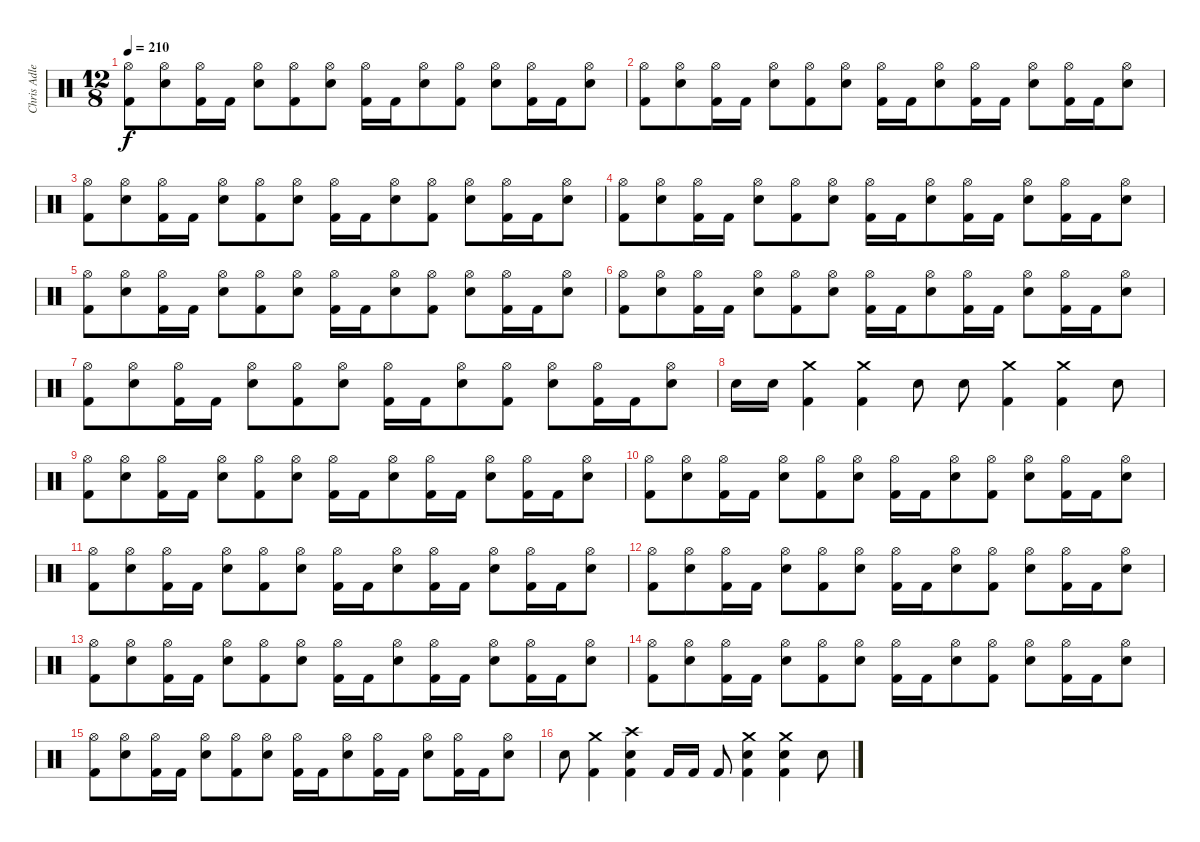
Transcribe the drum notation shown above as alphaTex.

\track ("Chris Adler" "Chris Adle") {instrument percussion}
\staff {score}
\articulation defaults
\ts (12 8)
\tempo 210
\clef neutral
\ks c
("Hi-Hat (open)" "Kick (hit) 2").8{dy f} ("Hi-Hat (open)" "Snare (hit) 2").8 ("Hi-Hat (open)" "Kick (hit) 2").16 "Kick (hit) 2".16 ("Hi-Hat (open)" "Snare (hit) 2").8 ("Hi-Hat (open)" "Kick (hit) 2").8 ("Hi-Hat (open)" "Snare (hit) 2").8 ("Hi-Hat (open)" "Kick (hit) 2").16 "Kick (hit) 2".16 ("Hi-Hat (open)" "Snare (hit) 2").8 ("Hi-Hat (open)" "Kick (hit) 2").8 ("Hi-Hat (open)" "Snare (hit) 2").8 ("Hi-Hat (open)" "Kick (hit) 2").16 "Kick (hit) 2".16 ("Hi-Hat (open)" "Snare (hit) 2").8 |
("Hi-Hat (open)" "Kick (hit) 2").8 ("Hi-Hat (open)" "Snare (hit) 2").8 ("Hi-Hat (open)" "Kick (hit) 2").16 "Kick (hit) 2".16 ("Hi-Hat (open)" "Snare (hit) 2").8 ("Hi-Hat (open)" "Kick (hit) 2").8 ("Hi-Hat (open)" "Snare (hit) 2").8 ("Hi-Hat (open)" "Kick (hit) 2").16 "Kick (hit) 2".16 ("Hi-Hat (open)" "Snare (hit) 2").8 ("Hi-Hat (open)" "Kick (hit) 2").16 "Kick (hit) 2".16 ("Hi-Hat (open)" "Snare (hit) 2").8 ("Hi-Hat (open)" "Kick (hit) 2").16 "Kick (hit) 2".16 ("Hi-Hat (open)" "Snare (hit) 2").8 |
("Hi-Hat (open)" "Kick (hit) 2").8 ("Hi-Hat (open)" "Snare (hit) 2").8 ("Hi-Hat (open)" "Kick (hit) 2").16 "Kick (hit) 2".16 ("Hi-Hat (open)" "Snare (hit) 2").8 ("Hi-Hat (open)" "Kick (hit) 2").8 ("Hi-Hat (open)" "Snare (hit) 2").8 ("Hi-Hat (open)" "Kick (hit) 2").16 "Kick (hit) 2".16 ("Hi-Hat (open)" "Snare (hit) 2").8 ("Hi-Hat (open)" "Kick (hit) 2").8 ("Hi-Hat (open)" "Snare (hit) 2").8 ("Hi-Hat (open)" "Kick (hit) 2").16 "Kick (hit) 2".16 ("Hi-Hat (open)" "Snare (hit) 2").8 |
("Hi-Hat (open)" "Kick (hit) 2").8 ("Hi-Hat (open)" "Snare (hit) 2").8 ("Hi-Hat (open)" "Kick (hit) 2").16 "Kick (hit) 2".16 ("Hi-Hat (open)" "Snare (hit) 2").8 ("Hi-Hat (open)" "Kick (hit) 2").8 ("Hi-Hat (open)" "Snare (hit) 2").8 ("Hi-Hat (open)" "Kick (hit) 2").16 "Kick (hit) 2".16 ("Hi-Hat (open)" "Snare (hit) 2").8 ("Hi-Hat (open)" "Kick (hit) 2").16 "Kick (hit) 2".16 ("Hi-Hat (open)" "Snare (hit) 2").8 ("Hi-Hat (open)" "Kick (hit) 2").16 "Kick (hit) 2".16 ("Hi-Hat (open)" "Snare (hit) 2").8 |
("Hi-Hat (open)" "Kick (hit) 2").8 ("Hi-Hat (open)" "Snare (hit) 2").8 ("Hi-Hat (open)" "Kick (hit) 2").16 "Kick (hit) 2".16 ("Hi-Hat (open)" "Snare (hit) 2").8 ("Hi-Hat (open)" "Kick (hit) 2").8 ("Hi-Hat (open)" "Snare (hit) 2").8 ("Hi-Hat (open)" "Kick (hit) 2").16 "Kick (hit) 2".16 ("Hi-Hat (open)" "Snare (hit) 2").8 ("Hi-Hat (open)" "Kick (hit) 2").8 ("Hi-Hat (open)" "Snare (hit) 2").8 ("Hi-Hat (open)" "Kick (hit) 2").16 "Kick (hit) 2".16 ("Hi-Hat (open)" "Snare (hit) 2").8 |
("Hi-Hat (open)" "Kick (hit) 2").8 ("Hi-Hat (open)" "Snare (hit) 2").8 ("Hi-Hat (open)" "Kick (hit) 2").16 "Kick (hit) 2".16 ("Hi-Hat (open)" "Snare (hit) 2").8 ("Hi-Hat (open)" "Kick (hit) 2").8 ("Hi-Hat (open)" "Snare (hit) 2").8 ("Hi-Hat (open)" "Kick (hit) 2").16 "Kick (hit) 2".16 ("Hi-Hat (open)" "Snare (hit) 2").8 ("Hi-Hat (open)" "Kick (hit) 2").16 "Kick (hit) 2".16 ("Hi-Hat (open)" "Snare (hit) 2").8 ("Hi-Hat (open)" "Kick (hit) 2").16 "Kick (hit) 2".16 ("Hi-Hat (open)" "Snare (hit) 2").8 |
("Hi-Hat (open)" "Kick (hit) 2").8 ("Hi-Hat (open)" "Snare (hit) 2").8 ("Hi-Hat (open)" "Kick (hit) 2").16 "Kick (hit) 2".16 ("Hi-Hat (open)" "Snare (hit) 2").8 ("Hi-Hat (open)" "Kick (hit) 2").8 ("Hi-Hat (open)" "Snare (hit) 2").8 ("Hi-Hat (open)" "Kick (hit) 2").16 "Kick (hit) 2".16 ("Hi-Hat (open)" "Snare (hit) 2").8 ("Hi-Hat (open)" "Kick (hit) 2").8 ("Hi-Hat (open)" "Snare (hit) 2").8 ("Hi-Hat (open)" "Kick (hit) 2").16 "Kick (hit) 2".16 ("Hi-Hat (open)" "Snare (hit) 2").8 |
"Snare (hit) 2".16 "Snare (hit) 2".16 ("Crash medium (hit)" "Kick (hit) 2").4 ("Crash medium (hit)" "Kick (hit) 2").4 "Snare (hit) 2".8 "Snare (hit) 2".8 ("Crash medium (hit)" "Kick (hit) 2").4 ("Crash medium (hit)" "Kick (hit) 2").4 "Snare (hit) 2".8 |
("Hi-Hat (open)" "Kick (hit) 2").8 ("Hi-Hat (open)" "Snare (hit) 2").8 ("Hi-Hat (open)" "Kick (hit) 2").16 "Kick (hit) 2".16 ("Hi-Hat (open)" "Snare (hit) 2").8 ("Hi-Hat (open)" "Kick (hit) 2").8 ("Hi-Hat (open)" "Snare (hit) 2").8 ("Hi-Hat (open)" "Kick (hit) 2").16 "Kick (hit) 2".16 ("Hi-Hat (open)" "Snare (hit) 2").8 ("Hi-Hat (open)" "Kick (hit) 2").16 "Kick (hit) 2".16 ("Hi-Hat (open)" "Snare (hit) 2").8 ("Hi-Hat (open)" "Kick (hit) 2").16 "Kick (hit) 2".16 ("Hi-Hat (open)" "Snare (hit) 2").8 |
("Hi-Hat (open)" "Kick (hit) 2").8 ("Hi-Hat (open)" "Snare (hit) 2").8 ("Hi-Hat (open)" "Kick (hit) 2").16 "Kick (hit) 2".16 ("Hi-Hat (open)" "Snare (hit) 2").8 ("Hi-Hat (open)" "Kick (hit) 2").8 ("Hi-Hat (open)" "Snare (hit) 2").8 ("Hi-Hat (open)" "Kick (hit) 2").16 "Kick (hit) 2".16 ("Hi-Hat (open)" "Snare (hit) 2").8 ("Hi-Hat (open)" "Kick (hit) 2").8 ("Hi-Hat (open)" "Snare (hit) 2").8 ("Hi-Hat (open)" "Kick (hit) 2").16 "Kick (hit) 2".16 ("Hi-Hat (open)" "Snare (hit) 2").8 |
("Hi-Hat (open)" "Kick (hit) 2").8 ("Hi-Hat (open)" "Snare (hit) 2").8 ("Hi-Hat (open)" "Kick (hit) 2").16 "Kick (hit) 2".16 ("Hi-Hat (open)" "Snare (hit) 2").8 ("Hi-Hat (open)" "Kick (hit) 2").8 ("Hi-Hat (open)" "Snare (hit) 2").8 ("Hi-Hat (open)" "Kick (hit) 2").16 "Kick (hit) 2".16 ("Hi-Hat (open)" "Snare (hit) 2").8 ("Hi-Hat (open)" "Kick (hit) 2").16 "Kick (hit) 2".16 ("Hi-Hat (open)" "Snare (hit) 2").8 ("Hi-Hat (open)" "Kick (hit) 2").16 "Kick (hit) 2".16 ("Hi-Hat (open)" "Snare (hit) 2").8 |
("Hi-Hat (open)" "Kick (hit) 2").8 ("Hi-Hat (open)" "Snare (hit) 2").8 ("Hi-Hat (open)" "Kick (hit) 2").16 "Kick (hit) 2".16 ("Hi-Hat (open)" "Snare (hit) 2").8 ("Hi-Hat (open)" "Kick (hit) 2").8 ("Hi-Hat (open)" "Snare (hit) 2").8 ("Hi-Hat (open)" "Kick (hit) 2").16 "Kick (hit) 2".16 ("Hi-Hat (open)" "Snare (hit) 2").8 ("Hi-Hat (open)" "Kick (hit) 2").8 ("Hi-Hat (open)" "Snare (hit) 2").8 ("Hi-Hat (open)" "Kick (hit) 2").16 "Kick (hit) 2".16 ("Hi-Hat (open)" "Snare (hit) 2").8 |
("Hi-Hat (open)" "Kick (hit) 2").8 ("Hi-Hat (open)" "Snare (hit) 2").8 ("Hi-Hat (open)" "Kick (hit) 2").16 "Kick (hit) 2".16 ("Hi-Hat (open)" "Snare (hit) 2").8 ("Hi-Hat (open)" "Kick (hit) 2").8 ("Hi-Hat (open)" "Snare (hit) 2").8 ("Hi-Hat (open)" "Kick (hit) 2").16 "Kick (hit) 2".16 ("Hi-Hat (open)" "Snare (hit) 2").8 ("Hi-Hat (open)" "Kick (hit) 2").16 "Kick (hit) 2".16 ("Hi-Hat (open)" "Snare (hit) 2").8 ("Hi-Hat (open)" "Kick (hit) 2").16 "Kick (hit) 2".16 ("Hi-Hat (open)" "Snare (hit) 2").8 |
("Hi-Hat (open)" "Kick (hit) 2").8 ("Hi-Hat (open)" "Snare (hit) 2").8 ("Hi-Hat (open)" "Kick (hit) 2").16 "Kick (hit) 2".16 ("Hi-Hat (open)" "Snare (hit) 2").8 ("Hi-Hat (open)" "Kick (hit) 2").8 ("Hi-Hat (open)" "Snare (hit) 2").8 ("Hi-Hat (open)" "Kick (hit) 2").16 "Kick (hit) 2".16 ("Hi-Hat (open)" "Snare (hit) 2").8 ("Hi-Hat (open)" "Kick (hit) 2").8 ("Hi-Hat (open)" "Snare (hit) 2").8 ("Hi-Hat (open)" "Kick (hit) 2").16 "Kick (hit) 2".16 ("Hi-Hat (open)" "Snare (hit) 2").8 |
("Hi-Hat (open)" "Kick (hit) 2").8 ("Hi-Hat (open)" "Snare (hit) 2").8 ("Hi-Hat (open)" "Kick (hit) 2").16 "Kick (hit) 2".16 ("Hi-Hat (open)" "Snare (hit) 2").8 ("Hi-Hat (open)" "Kick (hit) 2").8 ("Hi-Hat (open)" "Snare (hit) 2").8 ("Hi-Hat (open)" "Kick (hit) 2").16 "Kick (hit) 2".16 ("Hi-Hat (open)" "Snare (hit) 2").8 ("Hi-Hat (open)" "Kick (hit) 2").16 "Kick (hit) 2".16 ("Hi-Hat (open)" "Snare (hit) 2").8 ("Hi-Hat (open)" "Kick (hit) 2").16 "Kick (hit) 2".16 ("Hi-Hat (open)" "Snare (hit) 2").8 |
"Snare (hit) 2".8 ("Crash medium (hit)" "Kick (hit) 2").4 ("Crash high (hit)" "Snare (hit) 2" "Kick (hit) 2").4 "Kick (hit) 2".16 "Kick (hit) 2".16 "Kick (hit) 2".8 ("Crash medium (hit)" "Snare (hit) 2" "Kick (hit) 2").4 ("Crash medium (hit)" "Snare (hit) 2" "Kick (hit) 2").4 "Snare (hit) 2".8
